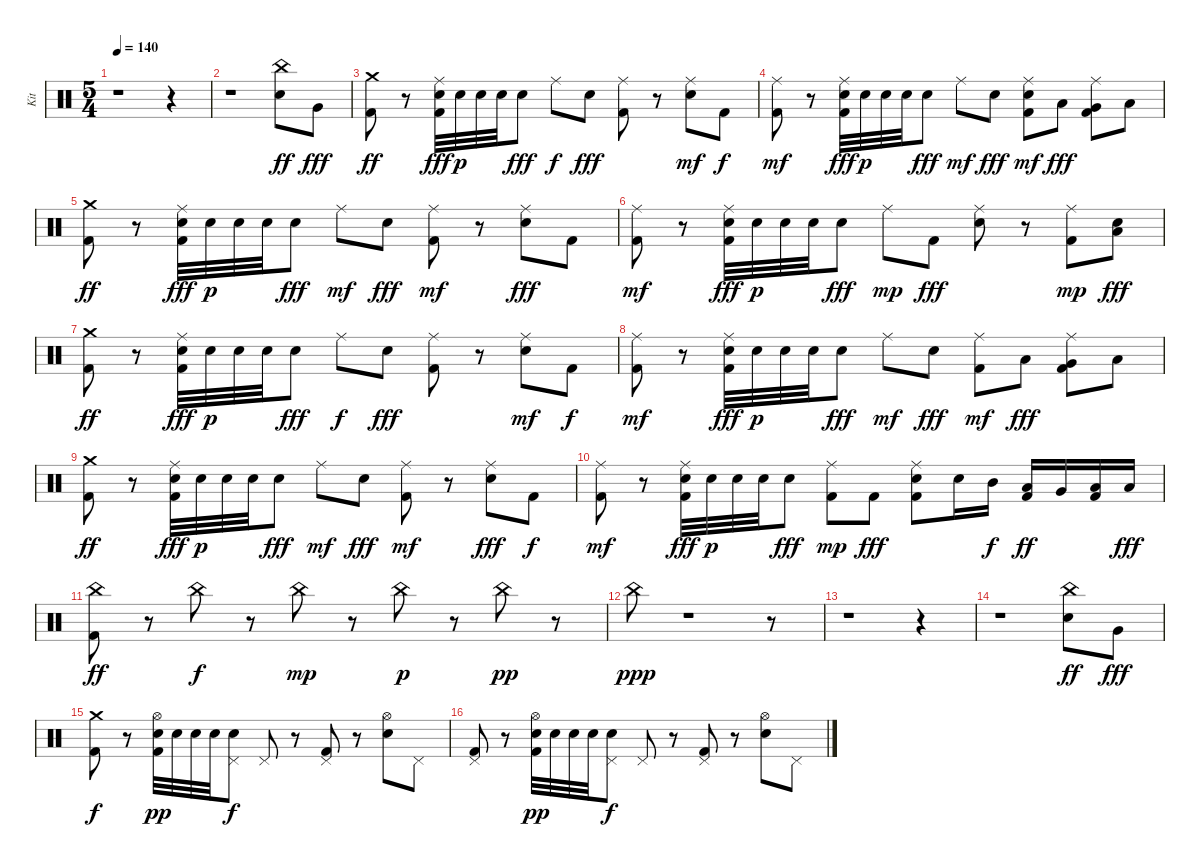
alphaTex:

\track ("Kit" "Kit") {instrument percussion}
\staff {score}
\articulation defaults
\ts (5 4)
\tempo 140
\clef neutral
\ks c
r.1{dy fff} r.4 |
r.1 ("Snare (hit) 2" "China (hit)").8{dy ff} "Very Low Tom (hit)".8{dy fff} |
("Kick (hit) 2" "Crash medium (hit)").8{dy ff} r.8 ("Kick (hit) 2" "Snare (hit) 2" "Ride (middle)").32{dy fff} "Snare (hit) 2".32{dy p} "Snare (hit) 2".32 "Snare (hit) 2".32 "Snare (hit) 2".8{dy fff} "Ride (middle)".8{dy f} "Snare (hit) 2".8{dy fff} ("Kick (hit) 2" "Ride (middle)").8 r.8 ("Snare (hit) 2" "Ride (middle)").8{dy mf} "Kick (hit) 2".8{dy f} |
("Kick (hit) 2" "Ride (middle)").8{dy mf} r.8 ("Kick (hit) 2" "Snare (hit) 2" "Ride (middle)").32{dy fff} "Snare (hit) 2".32{dy p} "Snare (hit) 2".32 "Snare (hit) 2".32 "Snare (hit) 2".8{dy fff} "Ride (middle)".8{dy mf} "Snare (hit) 2".8{dy fff} ("Kick (hit) 2" "Snare (hit) 2" "Ride (middle)").8{dy mf} "Low Tom (hit)".8{dy fff} ("Kick (hit) 2" "Very Low Tom (hit)" "Ride (middle)").8 "Low Floor Tom (hit)".8 |
("Kick (hit) 2" "Crash medium (hit)").8{dy ff} r.8 ("Kick (hit) 2" "Snare (hit) 2" "Ride (middle)").32{dy fff} "Snare (hit) 2".32{dy p} "Snare (hit) 2".32 "Snare (hit) 2".32 "Snare (hit) 2".8{dy fff} "Ride (middle)".8{dy mf} "Snare (hit) 2".8{dy fff} ("Kick (hit) 2" "Ride (middle)").8{dy mf} r.8 ("Snare (hit) 2" "Ride (middle)").8{dy fff} "Kick (hit) 2".8 |
("Kick (hit) 2" "Ride (middle)").8{dy mf} r.8 ("Kick (hit) 2" "Snare (hit) 2" "Ride (middle)").32{dy fff} "Snare (hit) 2".32{dy p} "Snare (hit) 2".32 "Snare (hit) 2".32 "Snare (hit) 2".8{dy fff} "Ride (middle)".8{dy mp} "Kick (hit) 2".8{dy fff} ("Snare (hit) 2" "Ride (middle)").8 r.8 ("Kick (hit) 2" "Ride (middle)").8{dy mp} ("Snare (hit) 2" "Low Floor Tom (hit)").8{dy fff} |
("Kick (hit) 2" "Crash medium (hit)").8{dy ff} r.8 ("Kick (hit) 2" "Snare (hit) 2" "Ride (middle)").32{dy fff} "Snare (hit) 2".32{dy p} "Snare (hit) 2".32 "Snare (hit) 2".32 "Snare (hit) 2".8{dy fff} "Ride (middle)".8{dy f} "Snare (hit) 2".8{dy fff} ("Kick (hit) 2" "Ride (middle)").8 r.8 ("Snare (hit) 2" "Ride (middle)").8{dy mf} "Kick (hit) 2".8{dy f} |
("Kick (hit) 2" "Ride (middle)").8{dy mf} r.8 ("Kick (hit) 2" "Snare (hit) 2" "Ride (middle)").32{dy fff} "Snare (hit) 2".32{dy p} "Snare (hit) 2".32 "Snare (hit) 2".32 "Snare (hit) 2".8{dy fff} "Ride (middle)".8{dy mf} "Snare (hit) 2".8{dy fff} ("Kick (hit) 2" "Ride (middle)").8{dy mf} "Low Tom (hit)".8{dy fff} ("Kick (hit) 2" "Very Low Tom (hit)" "Ride (middle)").8 "Low Floor Tom (hit)".8 |
("Kick (hit) 2" "Crash medium (hit)").8{dy ff} r.8 ("Kick (hit) 2" "Snare (hit) 2" "Ride (middle)").32{dy fff} "Snare (hit) 2".32{dy p} "Snare (hit) 2".32 "Snare (hit) 2".32 "Snare (hit) 2".8{dy fff} "Ride (middle)".8{dy mf} "Snare (hit) 2".8{dy fff} ("Kick (hit) 2" "Ride (middle)").8{dy mf} r.8 ("Snare (hit) 2" "Ride (middle)").8{dy fff} "Kick (hit) 2".8{dy f} |
("Kick (hit) 2" "Ride (middle)").8{dy mf} r.8 ("Kick (hit) 2" "Snare (hit) 2" "Ride (middle)").32{dy fff} "Snare (hit) 2".32{dy p} "Snare (hit) 2".32 "Snare (hit) 2".32 "Snare (hit) 2".8{dy fff} ("Kick (hit) 2" "Ride (middle)").8{dy mp} "Kick (hit) 2".8{dy fff} ("Kick (hit) 2" "Snare (hit) 2" "Ride (middle)").8 "Snare (hit) 2".16 "Mid Tom (hit)".16{dy f} ("Kick (hit) 2" "Low Tom (hit)").16{dy ff} "Very Low Tom (hit)".16 ("Kick (hit) 2" "Low Floor Tom (hit)").16 "Low Floor Tom (hit)".16{dy fff} |
("Kick (hit) 2" "China (hit)").8{dy ff} r.8 "China (hit)".8{dy f} r.8 "China (hit)".8{dy mp} r.8 "China (hit)".8{dy p} r.8 "China (hit)".8{dy pp} r.8 |
"China (hit)".8{dy ppp} r.1 r.8 |
r.1 r.4 |
r.1 ("Snare (hit) 2" "China (hit)").8{dy ff} "Very Low Tom (hit)".8{dy fff} |
("Kick (hit) 2" "Crash medium (hit)").8{dy f} r.8 ("Kick (hit) 2" "Snare (hit) 2" "Hi-Hat (open)").32{dy pp} "Snare (hit) 2".32 "Snare (hit) 2".32 "Snare (hit) 2".32 ("Snare (hit) 2" "Pedal Hi-Hat (hit)").8{dy f} "Pedal Hi-Hat (hit)".8 r.8 ("Kick (hit) 2" "Pedal Hi-Hat (hit)").8 r.8 ("Snare (hit) 2" "Hi-Hat (open)").8 "Pedal Hi-Hat (hit)".8 |
("Kick (hit) 2" "Pedal Hi-Hat (hit)").8 r.8 ("Kick (hit) 2" "Snare (hit) 2" "Hi-Hat (open)").32{dy pp} "Snare (hit) 2".32 "Snare (hit) 2".32 "Snare (hit) 2".32 ("Snare (hit) 2" "Pedal Hi-Hat (hit)").8{dy f} "Pedal Hi-Hat (hit)".8 r.8 ("Kick (hit) 2" "Pedal Hi-Hat (hit)").8 r.8 ("Snare (hit) 2" "Hi-Hat (open)").8 "Pedal Hi-Hat (hit)".8
